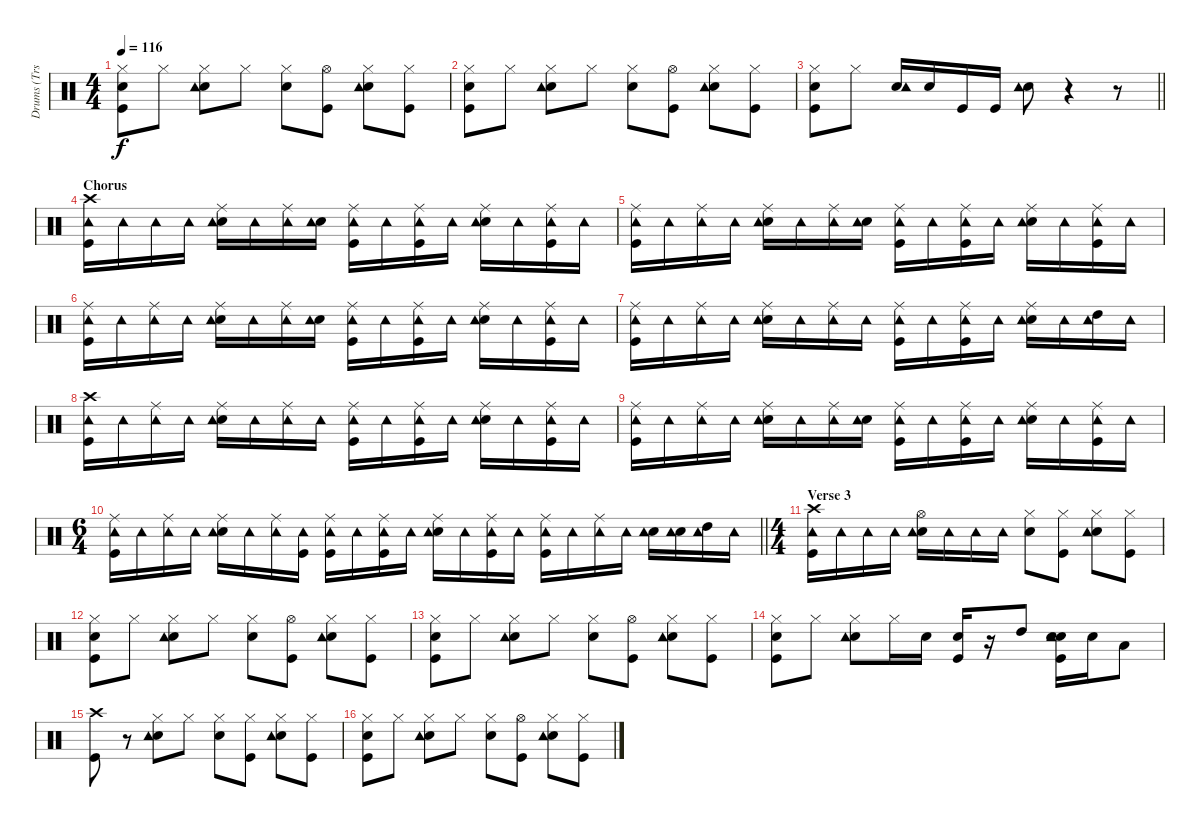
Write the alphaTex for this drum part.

\track ("Drums (Trs. 7-8A, 10A/7-8B, 10B, 12-13B)" "Drums (Trs") {mute instrument percussion}
\staff {score}
\articulation defaults
\ts (4 4)
\tempo 116
\clef neutral
\ks c
("Hi-Hat (closed)" "Electric Snare (hit)" "Kick (hit)").8{dy f} "Hi-Hat (closed)".8 ("Hi-Hat (closed)" "Electric Snare (hit)" "Tambourine (hit)").8 "Hi-Hat (closed)".8 ("Electric Snare (hit)" "Hi-Hat (closed)").8 ("Kick (hit)" "Hi-Hat (open)").8 ("Electric Snare (hit)" "Hi-Hat (closed)" "Tambourine (hit)").8 ("Kick (hit)" "Hi-Hat (closed)").8 |
("Hi-Hat (closed)" "Electric Snare (hit)" "Kick (hit)").8 "Hi-Hat (closed)".8 ("Electric Snare (hit)" "Hi-Hat (closed)" "Tambourine (hit)").8 "Hi-Hat (closed)".8 ("Hi-Hat (closed)" "Electric Snare (hit)").8 ("Hi-Hat (open)" "Kick (hit)").8 ("Electric Snare (hit)" "Hi-Hat (closed)" "Tambourine (hit)").8 ("Kick (hit)" "Hi-Hat (closed)").8 |
\barLineRight lightlight
("Hi-Hat (closed)" "Electric Snare (hit)" "Kick (hit)").8 "Hi-Hat (closed)".8 ("Electric Snare (hit)" "Tambourine (hit)").16 "Electric Snare (hit)".16 "Kick (hit)".16 "Kick (hit)".16 ("Electric Snare (hit)" "Tambourine (hit)").8 r.4 r.8 |
\section ("" "Chorus")
("Kick (hit)" "Crash high (hit)" "Tambourine (hit)").16 "Tambourine (hit)".16 "Tambourine (hit)".16 "Tambourine (hit)".16 ("Ride (middle)" "Electric Snare (hit)" "Tambourine (hit)").16 "Tambourine (hit)".16 ("Ride (middle)" "Tambourine (hit)").16 ("Electric Snare (hit)" "Tambourine (hit)").16 ("Ride (middle)" "Kick (hit)" "Tambourine (hit)").16 "Tambourine (hit)".16 ("Kick (hit)" "Ride (middle)" "Tambourine (hit)").16 "Tambourine (hit)".16 ("Electric Snare (hit)" "Ride (middle)" "Tambourine (hit)").16 "Tambourine (hit)".16 ("Ride (middle)" "Kick (hit)" "Tambourine (hit)").16 "Tambourine (hit)".16 |
("Kick (hit)" "Ride (middle)" "Tambourine (hit)").16 "Tambourine (hit)".16 ("Ride (middle)" "Tambourine (hit)").16 "Tambourine (hit)".16 ("Electric Snare (hit)" "Ride (middle)" "Tambourine (hit)").16 "Tambourine (hit)".16 ("Ride (middle)" "Tambourine (hit)").16 ("Electric Snare (hit)" "Tambourine (hit)").16 ("Ride (middle)" "Kick (hit)" "Tambourine (hit)").16 "Tambourine (hit)".16 ("Ride (middle)" "Kick (hit)" "Tambourine (hit)").16 "Tambourine (hit)".16 ("Ride (middle)" "Electric Snare (hit)" "Tambourine (hit)").16 "Tambourine (hit)".16 ("Kick (hit)" "Ride (middle)" "Tambourine (hit)").16 "Tambourine (hit)".16 |
("Kick (hit)" "Ride (middle)" "Tambourine (hit)").16 "Tambourine (hit)".16 ("Ride (middle)" "Tambourine (hit)").16 "Tambourine (hit)".16 ("Ride (middle)" "Electric Snare (hit)" "Tambourine (hit)").16 "Tambourine (hit)".16 ("Ride (middle)" "Tambourine (hit)").16 ("Electric Snare (hit)" "Tambourine (hit)").16 ("Kick (hit)" "Ride (middle)" "Tambourine (hit)").16 "Tambourine (hit)".16 ("Kick (hit)" "Ride (middle)" "Tambourine (hit)").16 "Tambourine (hit)".16 ("Ride (middle)" "Electric Snare (hit)" "Tambourine (hit)").16 "Tambourine (hit)".16 ("Kick (hit)" "Ride (middle)" "Tambourine (hit)").16 "Tambourine (hit)".16 |
("Ride (middle)" "Kick (hit)" "Tambourine (hit)").16 "Tambourine (hit)".16 ("Ride (middle)" "Tambourine (hit)").16 "Tambourine (hit)".16 ("Ride (middle)" "Electric Snare (hit)" "Tambourine (hit)").16 "Tambourine (hit)".16 ("Ride (middle)" "Tambourine (hit)").16 "Tambourine (hit)".16 ("Kick (hit)" "Ride (middle)" "Tambourine (hit)").16 "Tambourine (hit)".16 ("Ride (middle)" "Kick (hit)" "Tambourine (hit)").16 "Tambourine (hit)".16 ("Electric Snare (hit)" "Ride (middle)" "Tambourine (hit)").16 "Tambourine (hit)".16 ("High Tom (hit)" "Tambourine (hit)").16 "Tambourine (hit)".16 |
("Kick (hit)" "Crash high (hit)" "Tambourine (hit)").16 "Tambourine (hit)".16 ("Ride (middle)" "Tambourine (hit)").16 "Tambourine (hit)".16 ("Ride (middle)" "Electric Snare (hit)" "Tambourine (hit)").16 "Tambourine (hit)".16 ("Ride (middle)" "Tambourine (hit)").16 "Tambourine (hit)".16 ("Ride (middle)" "Kick (hit)" "Tambourine (hit)").16 "Tambourine (hit)".16 ("Ride (middle)" "Kick (hit)" "Tambourine (hit)").16 "Tambourine (hit)".16 ("Ride (middle)" "Electric Snare (hit)" "Tambourine (hit)").16 "Tambourine (hit)".16 ("Ride (middle)" "Kick (hit)" "Tambourine (hit)").16 "Tambourine (hit)".16 |
("Ride (middle)" "Kick (hit)" "Tambourine (hit)").16 "Tambourine (hit)".16 ("Ride (middle)" "Tambourine (hit)").16 "Tambourine (hit)".16 ("Ride (middle)" "Electric Snare (hit)" "Tambourine (hit)").16 "Tambourine (hit)".16 ("Ride (middle)" "Tambourine (hit)").16 ("Electric Snare (hit)" "Tambourine (hit)").16 ("Kick (hit)" "Ride (middle)" "Tambourine (hit)").16 "Tambourine (hit)".16 ("Kick (hit)" "Ride (middle)" "Tambourine (hit)").16 "Tambourine (hit)".16 ("Electric Snare (hit)" "Ride (middle)" "Tambourine (hit)").16 "Tambourine (hit)".16 ("Kick (hit)" "Ride (middle)" "Tambourine (hit)").16 "Tambourine (hit)".16 |
\ts (6 4)
\barLineRight lightlight
("Ride (middle)" "Kick (hit)" "Tambourine (hit)").16 "Tambourine (hit)".16 ("Ride (middle)" "Tambourine (hit)").16 "Tambourine (hit)".16 ("Electric Snare (hit)" "Ride (middle)" "Tambourine (hit)").16 "Tambourine (hit)".16 ("Ride (middle)" "Tambourine (hit)").16 ("Kick (hit)" "Tambourine (hit)").16 ("Ride (middle)" "Kick (hit)" "Tambourine (hit)").16 "Tambourine (hit)".16 ("Kick (hit)" "Ride (middle)" "Tambourine (hit)").16 "Tambourine (hit)".16 ("Electric Snare (hit)" "Ride (middle)" "Tambourine (hit)").16 "Tambourine (hit)".16 ("Kick (hit)" "Ride (middle)" "Tambourine (hit)").16 "Tambourine (hit)".16 ("Ride (middle)" "Kick (hit)" "Tambourine (hit)").16 "Tambourine (hit)".16 ("Ride (middle)" "Tambourine (hit)").16 "Tambourine (hit)".16 ("Electric Snare (hit)" "Tambourine (hit)").16 ("Electric Snare (hit)" "Tambourine (hit)").16 ("High Tom (hit)" "Tambourine (hit)").16 "Tambourine (hit)".16 |
\ts (4 4)
\section ("" "Verse 3")
("Kick (hit)" "Crash high (hit)" "Tambourine (hit)").16 "Tambourine (hit)".16 "Tambourine (hit)".16 "Tambourine (hit)".16 ("Electric Snare (hit)" "Hi-Hat (open)" "Tambourine (hit)").16 "Tambourine (hit)".16 "Tambourine (hit)".16 "Tambourine (hit)".16 ("Hi-Hat (closed)" "Electric Snare (hit)").8 ("Kick (hit)" "Hi-Hat (closed)").8 ("Electric Snare (hit)" "Hi-Hat (closed)" "Tambourine (hit)").8 ("Kick (hit)" "Hi-Hat (closed)").8 |
("Kick (hit)" "Electric Snare (hit)" "Hi-Hat (closed)").8 "Hi-Hat (closed)".8 ("Hi-Hat (closed)" "Electric Snare (hit)" "Tambourine (hit)").8 "Hi-Hat (closed)".8 ("Electric Snare (hit)" "Hi-Hat (closed)").8 ("Hi-Hat (open)" "Kick (hit)").8 ("Hi-Hat (closed)" "Electric Snare (hit)" "Tambourine (hit)").8 ("Hi-Hat (closed)" "Kick (hit)").8 |
("Electric Snare (hit)" "Hi-Hat (closed)" "Kick (hit)").8 "Hi-Hat (closed)".8 ("Electric Snare (hit)" "Hi-Hat (closed)" "Tambourine (hit)").8 "Hi-Hat (closed)".8 ("Hi-Hat (closed)" "Electric Snare (hit)").8 ("Hi-Hat (open)" "Kick (hit)").8 ("Electric Snare (hit)" "Hi-Hat (closed)" "Tambourine (hit)").8 ("Kick (hit)" "Hi-Hat (closed)").8 |
("Kick (hit)" "Hi-Hat (closed)" "Electric Snare (hit)").8 "Hi-Hat (closed)".8 ("Electric Snare (hit)" "Hi-Hat (closed)" "Tambourine (hit)").8 "Hi-Hat (closed)".16 "Electric Snare (hit)".16 ("Kick (hit)" "Electric Snare (hit)").16 r.16 "High Tom (hit)".8 ("Electric Snare (hit)" "Snare (hit) 2" "Kick (hit)" "Tambourine (hit)").16 "Electric Snare (hit)".16 "Low Tom (hit)".8 |
("Crash high (hit)" "Kick (hit)").8 r.8 ("Electric Snare (hit)" "Hi-Hat (closed)" "Tambourine (hit)").8 "Hi-Hat (closed)".8 ("Electric Snare (hit)" "Hi-Hat (closed)").8 ("Kick (hit)" "Hi-Hat (closed)").8 ("Hi-Hat (closed)" "Electric Snare (hit)" "Tambourine (hit)").8 ("Hi-Hat (closed)" "Kick (hit)").8 |
("Hi-Hat (closed)" "Kick (hit)" "Electric Snare (hit)").8 "Hi-Hat (closed)".8 ("Hi-Hat (closed)" "Electric Snare (hit)" "Tambourine (hit)").8 "Hi-Hat (closed)".8 ("Hi-Hat (closed)" "Electric Snare (hit)").8 ("Kick (hit)" "Hi-Hat (open)").8 ("Electric Snare (hit)" "Hi-Hat (closed)" "Tambourine (hit)").8 ("Kick (hit)" "Hi-Hat (closed)").8
